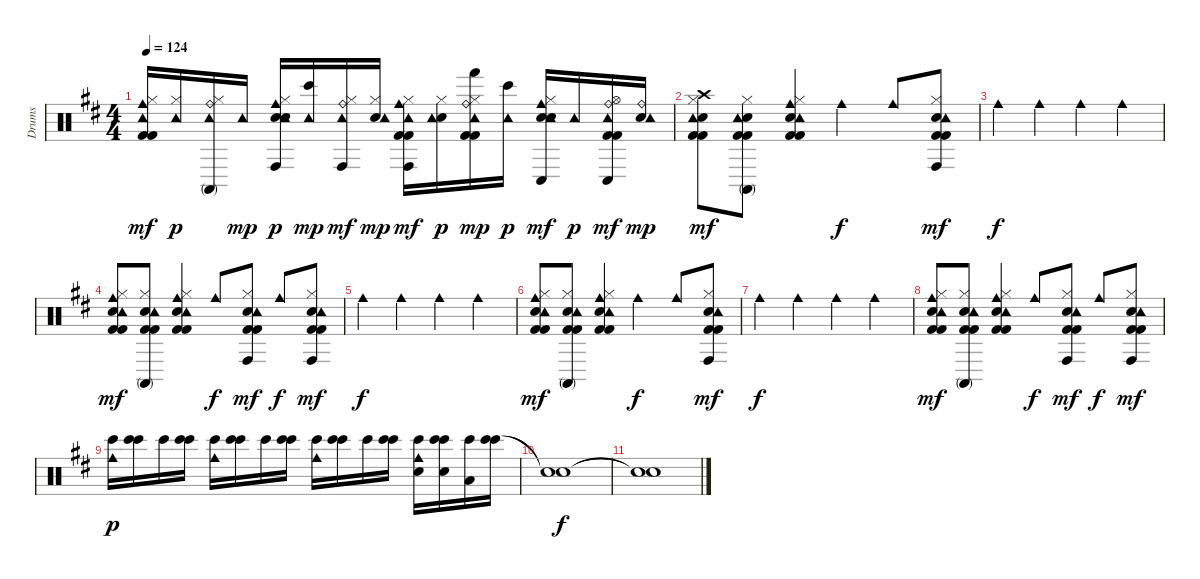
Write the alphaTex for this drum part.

\track ("Drums" "Drums") {instrument percussion}
\staff {score}
\articulation defaults
\ts (4 4)
\tempo 124
\clef neutral
\ks d
("Kick (hit) 2" "Kick (hit) 2" "Hi-Hat (closed)" "Tambourine (hit)" "Cowbell medium (hit)").16{dy mf} ("Hi-Hat (closed)" "Tambourine (hit)").16{dy p} ("Hi-Hat (closed)" "Ride (bell)" "Tambourine (hit)" "Conga high (mute)").16 "Tambourine (hit)".16{dy mp} ("Hand Clap (hit)" "Electric Snare (hit)" "Hi-Hat (closed)" "Tambourine (hit)" "Cowbell medium (hit)" "Conga high (hit)").16{dy p} ("Tambourine (hit)" "Bongo High (hit)").16{dy mp} ("Hi-Hat (closed)" "Ride (bell)" "Tambourine (hit)" "Conga high (hit)").16{dy mf} ("Electric Snare (hit)" "Hi-Hat (closed)" "Tambourine (hit)").16{dy mp} ("Kick (hit) 2" "Kick (hit) 2" "Hi-Hat (closed)" "Tambourine (hit)" "Cowbell medium (hit)" "Conga high (hit)").16{dy mf} ("Electric Snare (hit)" "Hi-Hat (closed)" "Tambourine (hit)").16{dy p} ("Kick (hit) 2" "Kick (hit) 2" "Hi-Hat (closed)" "Ride (bell)" "Tambourine (hit)" "Hand (hit)").16{dy mp} ("Tambourine (hit)" "Bongo High (hit)").16{dy p} ("Hand Clap (hit)" "Electric Snare (hit)" "Hi-Hat (closed)" "Tambourine (hit)" "Cowbell medium (hit)" "Conga low (hit)").16{dy mf} "Tambourine (hit)".16{dy p} ("Kick (hit) 2" "Kick (hit) 2" "Hi-Hat (open)" "Ride (bell)" "Tambourine (hit)" "Conga low (hit)").16{dy mf} ("Electric Snare (hit)" "Ride (bell)" "Tambourine (hit)").16{dy mp} |
("Kick (hit) 2" "Kick (hit) 2" "Electric Snare (hit)" "Hi-Hat (closed)" "Crash high (hit)" "Tambourine (hit)").8{dy mf} ("Kick (hit) 2" "Kick (hit) 2" "Electric Snare (hit)" "Hi-Hat (closed)" "Tambourine (hit)" "Conga high (mute)").8 ("Kick (hit) 2" "Kick (hit) 2" "Electric Snare (hit)" "Hi-Hat (closed)" "Tambourine (hit)" "Cowbell medium (hit)").4 "Cowbell medium (hit)".4{dy f} "Cowbell medium (hit)".8 ("Kick (hit) 2" "Kick (hit) 2" "Electric Snare (hit)" "Hi-Hat (closed)" "Tambourine (hit)" "Conga high (hit)").8{dy mf} |
"Cowbell medium (hit)".4{dy f} "Cowbell medium (hit)".4 "Cowbell medium (hit)".4 "Cowbell medium (hit)".4 |
("Kick (hit) 2" "Kick (hit) 2" "Electric Snare (hit)" "Hi-Hat (closed)" "Tambourine (hit)" "Cowbell medium (hit)").8{dy mf} ("Kick (hit) 2" "Kick (hit) 2" "Electric Snare (hit)" "Hi-Hat (closed)" "Tambourine (hit)" "Conga high (mute)").8 ("Kick (hit) 2" "Kick (hit) 2" "Electric Snare (hit)" "Hi-Hat (closed)" "Tambourine (hit)" "Cowbell medium (hit)").4 "Cowbell medium (hit)".8{dy f} ("Kick (hit) 2" "Kick (hit) 2" "Electric Snare (hit)" "Hi-Hat (closed)" "Tambourine (hit)" "Conga high (hit)").8{dy mf} "Cowbell medium (hit)".8{dy f} ("Kick (hit) 2" "Kick (hit) 2" "Electric Snare (hit)" "Hi-Hat (closed)" "Tambourine (hit)" "Conga high (hit)").8{dy mf} |
"Cowbell medium (hit)".4{dy f} "Cowbell medium (hit)".4 "Cowbell medium (hit)".4 "Cowbell medium (hit)".4 |
("Kick (hit) 2" "Kick (hit) 2" "Electric Snare (hit)" "Hi-Hat (closed)" "Tambourine (hit)" "Cowbell medium (hit)").8{dy mf} ("Kick (hit) 2" "Kick (hit) 2" "Electric Snare (hit)" "Hi-Hat (closed)" "Tambourine (hit)" "Conga high (mute)").8 ("Kick (hit) 2" "Kick (hit) 2" "Electric Snare (hit)" "Hi-Hat (closed)" "Tambourine (hit)" "Cowbell medium (hit)").4 "Cowbell medium (hit)".4{dy f} "Cowbell medium (hit)".8 ("Kick (hit) 2" "Kick (hit) 2" "Electric Snare (hit)" "Hi-Hat (closed)" "Tambourine (hit)" "Conga high (hit)").8{dy mf} |
"Cowbell medium (hit)".4{dy f} "Cowbell medium (hit)".4 "Cowbell medium (hit)".4 "Cowbell medium (hit)".4 |
("Kick (hit) 2" "Kick (hit) 2" "Electric Snare (hit)" "Hi-Hat (closed)" "Tambourine (hit)" "Cowbell medium (hit)").8{dy mf} ("Kick (hit) 2" "Kick (hit) 2" "Electric Snare (hit)" "Hi-Hat (closed)" "Tambourine (hit)" "Conga high (mute)").8 ("Kick (hit) 2" "Kick (hit) 2" "Electric Snare (hit)" "Hi-Hat (closed)" "Tambourine (hit)" "Cowbell medium (hit)").4 "Cowbell medium (hit)".8{dy f} ("Kick (hit) 2" "Kick (hit) 2" "Electric Snare (hit)" "Hi-Hat (closed)" "Tambourine (hit)" "Conga high (hit)").8{dy mf} "Cowbell medium (hit)".8{dy f} ("Kick (hit) 2" "Kick (hit) 2" "Electric Snare (hit)" "Hi-Hat (closed)" "Tambourine (hit)" "Conga high (hit)").8{dy mf} |
("Cowbell medium (hit)" "Bongo High (hit)").16{dy p} ("Bongo High (hit)" "Bongo High (hit)").16 "Bongo High (hit)".16 ("Bongo High (hit)" "Bongo High (hit)").16 ("Cowbell medium (hit)" "Bongo High (hit)").16 ("Bongo High (hit)" "Bongo High (hit)").16 "Bongo High (hit)".16 ("Bongo High (hit)" "Bongo High (hit)").16 ("Cowbell medium (hit)" "Bongo High (hit)").16 ("Bongo High (hit)" "Bongo High (hit)").16 "Bongo High (hit)".16 ("Bongo High (hit)" "Bongo High (hit)").16 ("Electric Snare (hit)" "Cowbell medium (hit)" "Bongo High (hit)").16 ("Electric Snare (hit)" "Bongo High (hit)" "Bongo High (hit)").16 ("Low Tom (hit)" "Bongo High (hit)").16 ("Bongo High (hit)" "Bongo High (hit)").16 |
("Snare (hit)"{t} "Snare (hit)"{t}).1{dy f} |
("Snare (hit)"{t} "Snare (hit)"{t}).1
